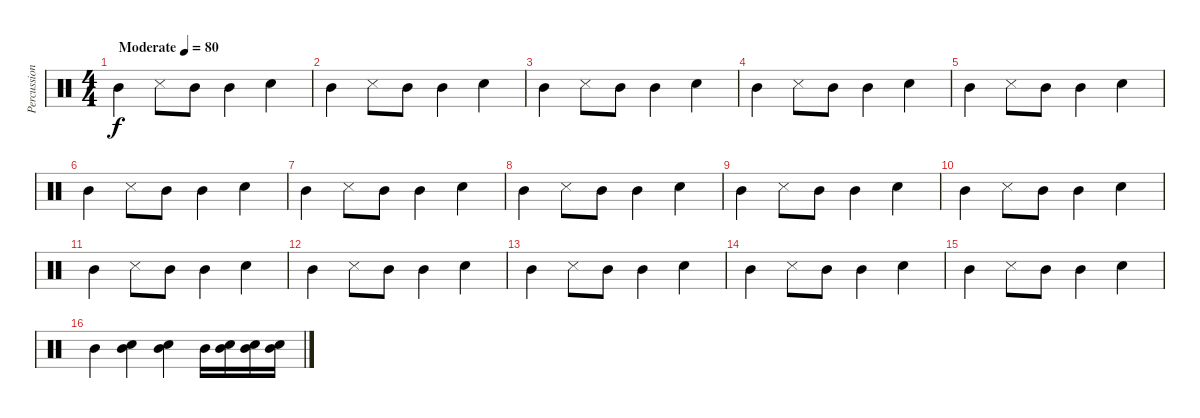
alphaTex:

\track ("Percussions" "Percussion") {instrument percussion}
\staff {score}
\articulation defaults
\ts (4 4)
\tempo (80 "Moderate")
\clef neutral
\ks c "Mid Tom (hit)".4{dy f} "Snare (side stick) 3".8 "Mid Tom (hit)".8 "Mid Tom (hit)".4 "Electric Snare (hit)".4
|
"Mid Tom (hit)".4 "Snare (side stick) 3".8 "Mid Tom (hit)".8 "Mid Tom (hit)".4 "Electric Snare (hit)".4 |
"Mid Tom (hit)".4 "Snare (side stick) 3".8 "Mid Tom (hit)".8 "Mid Tom (hit)".4 "Electric Snare (hit)".4 |
"Mid Tom (hit)".4 "Snare (side stick) 3".8 "Mid Tom (hit)".8 "Mid Tom (hit)".4 "Electric Snare (hit)".4 |
"Mid Tom (hit)".4 "Snare (side stick) 3".8 "Mid Tom (hit)".8 "Mid Tom (hit)".4 "Electric Snare (hit)".4 |
"Mid Tom (hit)".4 "Snare (side stick) 3".8 "Mid Tom (hit)".8 "Mid Tom (hit)".4 "Electric Snare (hit)".4 |
"Mid Tom (hit)".4 "Snare (side stick) 3".8 "Mid Tom (hit)".8 "Mid Tom (hit)".4 "Electric Snare (hit)".4 |
"Mid Tom (hit)".4 "Snare (side stick) 3".8 "Mid Tom (hit)".8 "Mid Tom (hit)".4 "Electric Snare (hit)".4 |
"Mid Tom (hit)".4 "Snare (side stick) 3".8 "Mid Tom (hit)".8 "Mid Tom (hit)".4 "Electric Snare (hit)".4 |
"Mid Tom (hit)".4 "Snare (side stick) 3".8 "Mid Tom (hit)".8 "Mid Tom (hit)".4 "Electric Snare (hit)".4 |
"Mid Tom (hit)".4 "Snare (side stick) 3".8 "Mid Tom (hit)".8 "Mid Tom (hit)".4 "Electric Snare (hit)".4 |
"Mid Tom (hit)".4 "Snare (side stick) 3".8 "Mid Tom (hit)".8 "Mid Tom (hit)".4 "Electric Snare (hit)".4 |
"Mid Tom (hit)".4 "Snare (side stick) 3".8 "Mid Tom (hit)".8 "Mid Tom (hit)".4 "Electric Snare (hit)".4 |
"Mid Tom (hit)".4 "Snare (side stick) 3".8 "Mid Tom (hit)".8 "Mid Tom (hit)".4 "Electric Snare (hit)".4 |
"Mid Tom (hit)".4 "Snare (side stick) 3".8 "Mid Tom (hit)".8 "Mid Tom (hit)".4 "Electric Snare (hit)".4 |
"Mid Tom (hit)".4 ("Mid Tom (hit)" "Electric Snare (hit)").4 ("Mid Tom (hit)" "Electric Snare (hit)").4 "Mid Tom (hit)".16 ("Mid Tom (hit)" "Electric Snare (hit)").16 ("Mid Tom (hit)" "Electric Snare (hit)").16 ("Mid Tom (hit)" "Electric Snare (hit)").16
